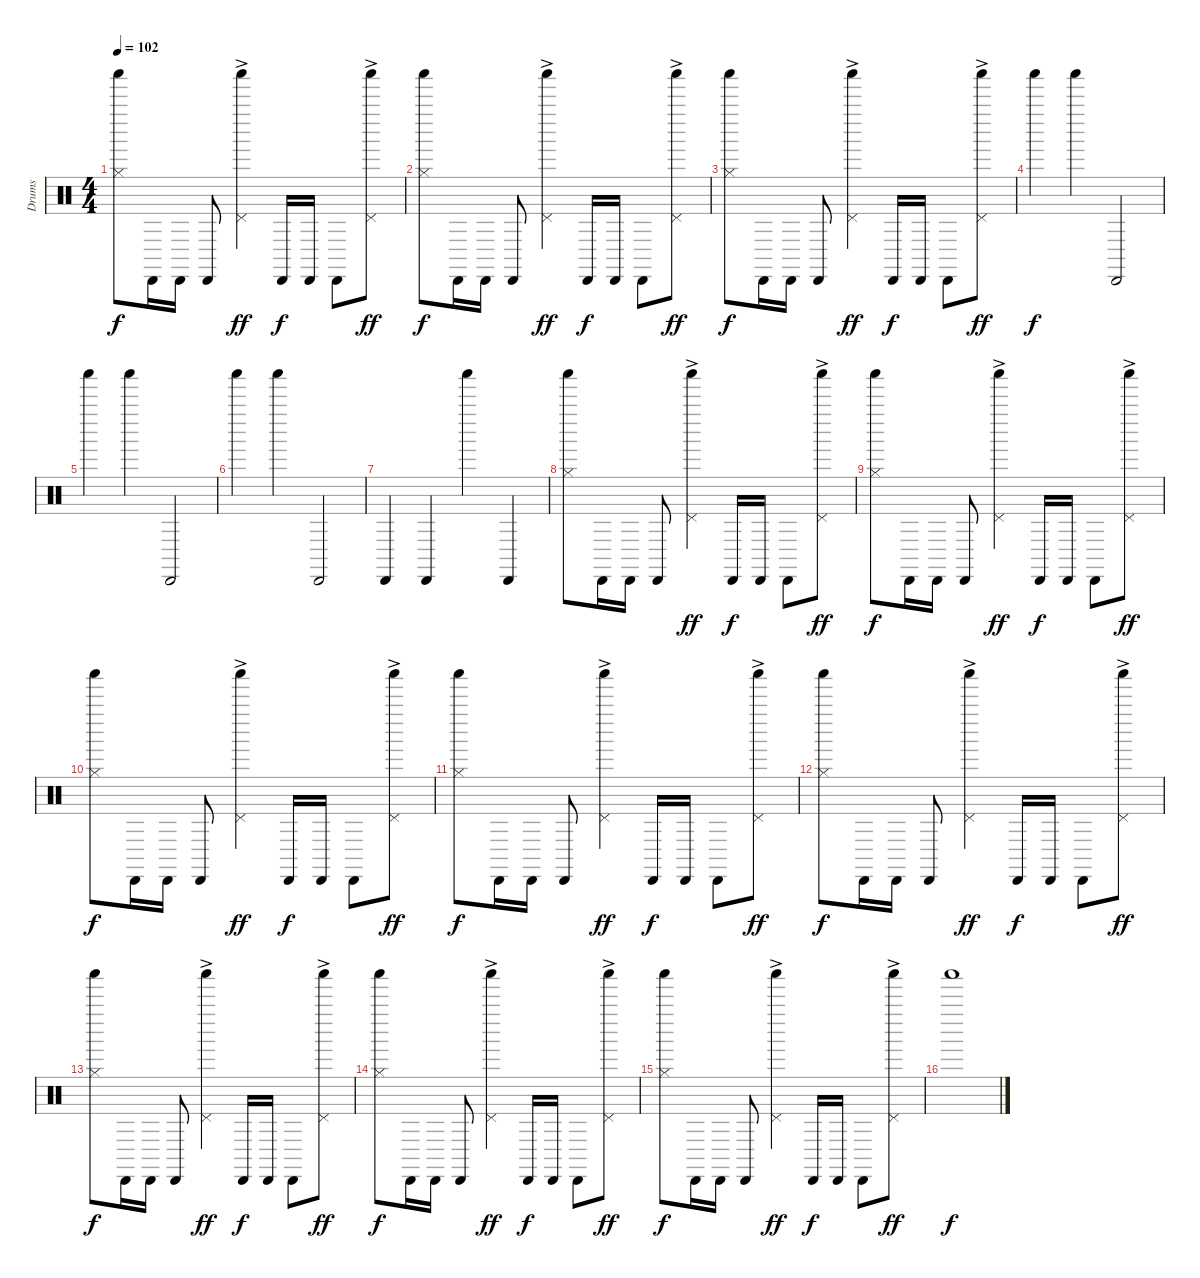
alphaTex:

\track ("Drums" "Drums") {instrument percussion}
\staff {score}
\articulation defaults
\ts (4 4)
\tempo 102
\clef neutral
\ks c
("Shaker (hit)" "Hi-Hat (closed)").8{dy f} "Cabasa (hit)".16 "Cabasa (hit)".16 "Cabasa (hit)".8 ("Shaker (hit)" "Pedal Hi-Hat (hit)"{ac}).4{dy ff} "Cabasa (hit)".16{dy f} "Cabasa (hit)".16 "Cabasa (hit)".8 ("Shaker (hit)" "Pedal Hi-Hat (hit)"{ac}).8{dy ff} |
("Shaker (hit)" "Hi-Hat (closed)").8{dy f} "Cabasa (hit)".16 "Cabasa (hit)".16 "Cabasa (hit)".8 ("Shaker (hit)" "Pedal Hi-Hat (hit)"{ac}).4{dy ff} "Cabasa (hit)".16{dy f} "Cabasa (hit)".16 "Cabasa (hit)".8 ("Shaker (hit)" "Pedal Hi-Hat (hit)"{ac}).8{dy ff} |
("Shaker (hit)" "Hi-Hat (closed)").8{dy f} "Cabasa (hit)".16 "Cabasa (hit)".16 "Cabasa (hit)".8 ("Shaker (hit)" "Pedal Hi-Hat (hit)"{ac}).4{dy ff} "Cabasa (hit)".16{dy f} "Cabasa (hit)".16 "Cabasa (hit)".8 ("Shaker (hit)" "Pedal Hi-Hat (hit)"{ac}).8{dy ff} |
"Shaker (hit)".4{dy f} "Shaker (hit)".4 "Cabasa (hit)".2 |
"Shaker (hit)".4 "Shaker (hit)".4 "Cabasa (hit)".2 |
"Shaker (hit)".4 "Shaker (hit)".4 "Cabasa (hit)".2 |
"Cabasa (hit)".4 "Cabasa (hit)".4 "Shaker (hit)".4 "Cabasa (hit)".4 |
("Shaker (hit)" "Hi-Hat (closed)").8 "Cabasa (hit)".16 "Cabasa (hit)".16 "Cabasa (hit)".8 ("Shaker (hit)" "Pedal Hi-Hat (hit)"{ac}).4{dy ff} "Cabasa (hit)".16{dy f} "Cabasa (hit)".16 "Cabasa (hit)".8 ("Shaker (hit)" "Pedal Hi-Hat (hit)"{ac}).8{dy ff} |
("Shaker (hit)" "Hi-Hat (closed)").8{dy f} "Cabasa (hit)".16 "Cabasa (hit)".16 "Cabasa (hit)".8 ("Shaker (hit)" "Pedal Hi-Hat (hit)"{ac}).4{dy ff} "Cabasa (hit)".16{dy f} "Cabasa (hit)".16 "Cabasa (hit)".8 ("Shaker (hit)" "Pedal Hi-Hat (hit)"{ac}).8{dy ff} |
("Shaker (hit)" "Hi-Hat (closed)").8{dy f} "Cabasa (hit)".16 "Cabasa (hit)".16 "Cabasa (hit)".8 ("Shaker (hit)" "Pedal Hi-Hat (hit)"{ac}).4{dy ff} "Cabasa (hit)".16{dy f} "Cabasa (hit)".16 "Cabasa (hit)".8 ("Shaker (hit)" "Pedal Hi-Hat (hit)"{ac}).8{dy ff} |
("Shaker (hit)" "Hi-Hat (closed)").8{dy f} "Cabasa (hit)".16 "Cabasa (hit)".16 "Cabasa (hit)".8 ("Shaker (hit)" "Pedal Hi-Hat (hit)"{ac}).4{dy ff} "Cabasa (hit)".16{dy f} "Cabasa (hit)".16 "Cabasa (hit)".8 ("Shaker (hit)" "Pedal Hi-Hat (hit)"{ac}).8{dy ff} |
("Shaker (hit)" "Hi-Hat (closed)").8{dy f} "Cabasa (hit)".16 "Cabasa (hit)".16 "Cabasa (hit)".8 ("Shaker (hit)" "Pedal Hi-Hat (hit)"{ac}).4{dy ff} "Cabasa (hit)".16{dy f} "Cabasa (hit)".16 "Cabasa (hit)".8 ("Shaker (hit)" "Pedal Hi-Hat (hit)"{ac}).8{dy ff} |
("Shaker (hit)" "Hi-Hat (closed)").8{dy f} "Cabasa (hit)".16 "Cabasa (hit)".16 "Cabasa (hit)".8 ("Shaker (hit)" "Pedal Hi-Hat (hit)"{ac}).4{dy ff} "Cabasa (hit)".16{dy f} "Cabasa (hit)".16 "Cabasa (hit)".8 ("Shaker (hit)" "Pedal Hi-Hat (hit)"{ac}).8{dy ff} |
("Shaker (hit)" "Hi-Hat (closed)").8{dy f} "Cabasa (hit)".16 "Cabasa (hit)".16 "Cabasa (hit)".8 ("Shaker (hit)" "Pedal Hi-Hat (hit)"{ac}).4{dy ff} "Cabasa (hit)".16{dy f} "Cabasa (hit)".16 "Cabasa (hit)".8 ("Shaker (hit)" "Pedal Hi-Hat (hit)"{ac}).8{dy ff} |
("Shaker (hit)" "Hi-Hat (closed)").8{dy f} "Cabasa (hit)".16 "Cabasa (hit)".16 "Cabasa (hit)".8 ("Shaker (hit)" "Pedal Hi-Hat (hit)"{ac}).4{dy ff} "Cabasa (hit)".16{dy f} "Cabasa (hit)".16 "Cabasa (hit)".8 ("Shaker (hit)" "Pedal Hi-Hat (hit)"{ac}).8{dy ff} |
"Shaker (hit)".1{dy f}
